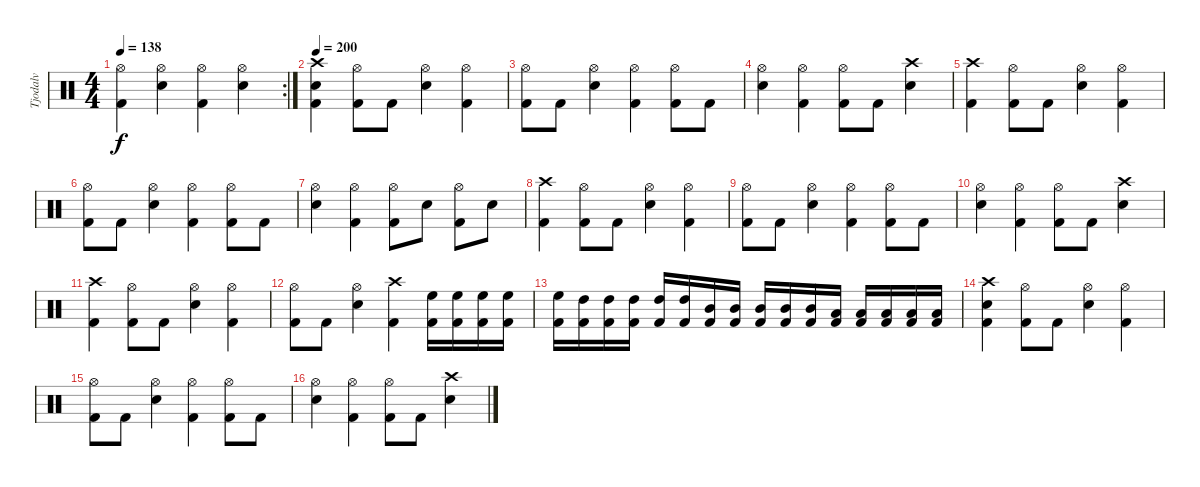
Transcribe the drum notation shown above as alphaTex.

\track ("Tjodalv" "Tjodalv") {instrument percussion}
\staff {score}
\articulation defaults
\rc 2
\ts (4 4)
\tempo 138
\clef neutral
\ks c
("Kick (hit) 2" "Hi-Hat (open)").4{dy f} ("Snare (hit) 2" "Hi-Hat (open)").4 ("Kick (hit) 2" "Hi-Hat (open)").4 ("Snare (hit) 2" "Hi-Hat (open)").4 |
\tempo 200
("Kick (hit) 2" "Snare (hit) 2" "Crash high (hit)").4 ("Kick (hit) 2" "Hi-Hat (open)").8 "Kick (hit) 2".8 ("Snare (hit) 2" "Hi-Hat (open)").4 ("Kick (hit) 2" "Hi-Hat (open)").4 |
("Kick (hit) 2" "Hi-Hat (open)").8 "Kick (hit) 2".8 ("Snare (hit) 2" "Hi-Hat (open)").4 ("Kick (hit) 2" "Hi-Hat (open)").4 ("Kick (hit) 2" "Hi-Hat (open)").8 "Kick (hit) 2".8 |
("Snare (hit) 2" "Hi-Hat (open)").4 ("Kick (hit) 2" "Hi-Hat (open)").4 ("Kick (hit) 2" "Hi-Hat (open)").8 "Kick (hit) 2".8 ("Snare (hit) 2" "Crash high (hit)").4 |
("Kick (hit) 2" "Crash high (hit)").4 ("Kick (hit) 2" "Hi-Hat (open)").8 "Kick (hit) 2".8 ("Snare (hit) 2" "Hi-Hat (open)").4 ("Kick (hit) 2" "Hi-Hat (open)").4 |
("Kick (hit) 2" "Hi-Hat (open)").8 "Kick (hit) 2".8 ("Snare (hit) 2" "Hi-Hat (open)").4 ("Kick (hit) 2" "Hi-Hat (open)").4 ("Kick (hit) 2" "Hi-Hat (open)").8 "Kick (hit) 2".8 |
("Snare (hit) 2" "Hi-Hat (open)").4 ("Kick (hit) 2" "Hi-Hat (open)").4 ("Kick (hit) 2" "Hi-Hat (open)").8 "Snare (hit) 2".8 ("Kick (hit) 2" "Hi-Hat (open)").8 "Snare (hit) 2".8 |
("Kick (hit) 2" "Crash high (hit)").4 ("Kick (hit) 2" "Hi-Hat (open)").8 "Kick (hit) 2".8 ("Snare (hit) 2" "Hi-Hat (open)").4 ("Kick (hit) 2" "Hi-Hat (open)").4 |
("Kick (hit) 2" "Hi-Hat (open)").8 "Kick (hit) 2".8 ("Snare (hit) 2" "Hi-Hat (open)").4 ("Kick (hit) 2" "Hi-Hat (open)").4 ("Kick (hit) 2" "Hi-Hat (open)").8 "Kick (hit) 2".8 |
("Snare (hit) 2" "Hi-Hat (open)").4 ("Kick (hit) 2" "Hi-Hat (open)").4 ("Kick (hit) 2" "Hi-Hat (open)").8 "Kick (hit) 2".8 ("Snare (hit) 2" "Crash high (hit)").4 |
("Kick (hit) 2" "Crash high (hit)").4 ("Kick (hit) 2" "Hi-Hat (open)").8 "Kick (hit) 2".8 ("Snare (hit) 2" "Hi-Hat (open)").4 ("Kick (hit) 2" "Hi-Hat (open)").4 |
("Kick (hit) 2" "Hi-Hat (open)").8 "Kick (hit) 2".8 ("Snare (hit) 2" "Hi-Hat (open)").4 ("Kick (hit) 2" "Crash high (hit)").4 ("Kick (hit) 2" "High Floor Tom (hit)").16 ("Kick (hit) 2" "High Floor Tom (hit)").16 ("Kick (hit) 2" "High Floor Tom (hit)").16 ("Kick (hit) 2" "High Floor Tom (hit)").16 |
("Kick (hit) 2" "High Floor Tom (hit)").16 ("Kick (hit) 2" "High Tom (hit)").16 ("Kick (hit) 2" "High Tom (hit)").16 ("Kick (hit) 2" "High Tom (hit)").16 ("Kick (hit) 2" "High Tom (hit)").16 ("Kick (hit) 2" "High Tom (hit)").16 ("Kick (hit) 2" "Mid Tom (hit)").16 ("Kick (hit) 2" "Mid Tom (hit)").16 ("Kick (hit) 2" "Mid Tom (hit)").16 ("Kick (hit) 2" "Mid Tom (hit)").16 ("Kick (hit) 2" "Mid Tom (hit)").16 ("Kick (hit) 2" "Low Tom (hit)").16 ("Kick (hit) 2" "Low Tom (hit)").16 ("Kick (hit) 2" "Low Tom (hit)").16 ("Kick (hit) 2" "Low Tom (hit)").16 ("Kick (hit) 2" "Low Tom (hit)").16 |
("Kick (hit) 2" "Snare (hit) 2" "Crash high (hit)").4 ("Kick (hit) 2" "Hi-Hat (open)").8 "Kick (hit) 2".8 ("Snare (hit) 2" "Hi-Hat (open)").4 ("Kick (hit) 2" "Hi-Hat (open)").4 |
("Kick (hit) 2" "Hi-Hat (open)").8 "Kick (hit) 2".8 ("Snare (hit) 2" "Hi-Hat (open)").4 ("Kick (hit) 2" "Hi-Hat (open)").4 ("Kick (hit) 2" "Hi-Hat (open)").8 "Kick (hit) 2".8 |
("Snare (hit) 2" "Hi-Hat (open)").4 ("Kick (hit) 2" "Hi-Hat (open)").4 ("Kick (hit) 2" "Hi-Hat (open)").8 "Kick (hit) 2".8 ("Snare (hit) 2" "Crash high (hit)").4
